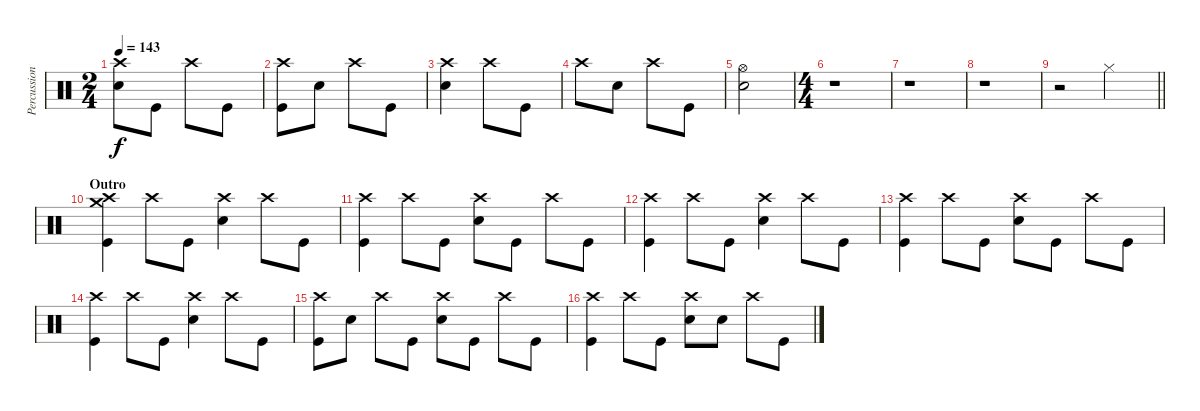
\track ("Percussion" "Percussion") {instrument percussion}
\staff {score}
\articulation defaults
\ts (2 4)
\tempo 143
\clef neutral
\ks c
("Crash high (hit)" "Electric Snare (hit)").8{dy f} "Kick (hit)".8 "Crash high (hit)".8 "Kick (hit)".8 |
("Crash high (hit)" "Kick (hit)").8 "Electric Snare (hit)".8 "Crash high (hit)".8 "Kick (hit)".8 |
("Crash high (hit)" "Electric Snare (hit)").4 "Crash high (hit)".8 "Kick (hit)".8 |
"Crash high (hit)".8 "Electric Snare (hit)".8 "Crash high (hit)".8 "Kick (hit)".8 |
("Hi-Hat (open)" "Electric Snare (hit)").2 |
\ts (4 4)
r.1 |
r.1 |
r.1 |
\barLineRight lightlight
r.2 "Hi-Hat (closed)".2 |
\section ("" "Outro")
("Crash high (hit)" "Crash medium (hit)" "Kick (hit)").4 "Crash high (hit)".8 "Kick (hit)".8 ("Crash high (hit)" "Electric Snare (hit)").4 "Crash high (hit)".8 "Kick (hit)".8 |
("Crash high (hit)" "Kick (hit)").4 "Crash high (hit)".8 "Kick (hit)".8 ("Crash high (hit)" "Electric Snare (hit)").8 "Kick (hit)".8 "Crash high (hit)".8 "Kick (hit)".8 |
("Crash high (hit)" "Kick (hit)").4 "Crash high (hit)".8 "Kick (hit)".8 ("Crash high (hit)" "Electric Snare (hit)").4 "Crash high (hit)".8 "Kick (hit)".8 |
("Crash high (hit)" "Kick (hit)").4 "Crash high (hit)".8 "Kick (hit)".8 ("Crash high (hit)" "Electric Snare (hit)").8 "Kick (hit)".8 "Crash high (hit)".8 "Kick (hit)".8 |
("Crash high (hit)" "Kick (hit)").4 "Crash high (hit)".8 "Kick (hit)".8 ("Crash high (hit)" "Electric Snare (hit)").4 "Crash high (hit)".8 "Kick (hit)".8 |
("Crash high (hit)" "Kick (hit)").8 "Electric Snare (hit)".8 "Crash high (hit)".8 "Kick (hit)".8 ("Crash high (hit)" "Electric Snare (hit)").8 "Kick (hit)".8 "Crash high (hit)".8 "Kick (hit)".8 |
("Crash high (hit)" "Kick (hit)").4 "Crash high (hit)".8 "Kick (hit)".8 ("Crash high (hit)" "Electric Snare (hit)").8 "Electric Snare (hit)".8 "Crash high (hit)".8 "Kick (hit)".8
